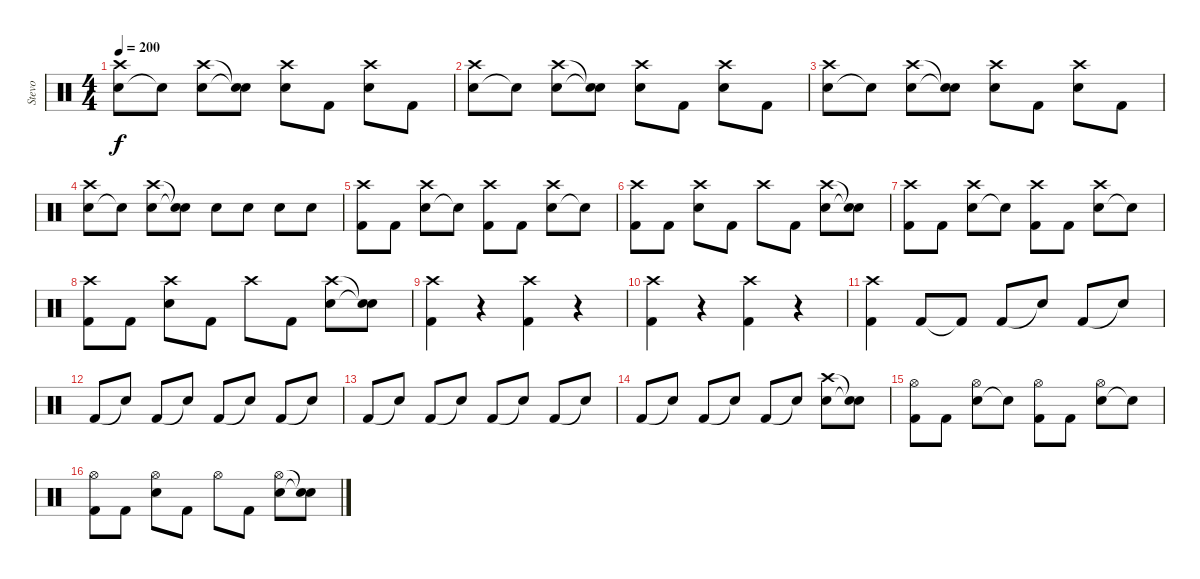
\track ("Stevo" "Stevo") {instrument percussion}
\staff {score}
\articulation defaults
\ts (4 4)
\tempo 200
\clef neutral
\ks c
("Snare (hit) 2" "Crash high (hit)").8{dy f} "Snare (hit)"{t}.8 ("Snare (hit) 2" "Crash high (hit)").8 ("Snare (hit)"{t} "Snare (hit)"{t}).8 ("Snare (hit) 2" "Crash high (hit)").8 "Kick (hit) 2".8 ("Snare (hit) 2" "Crash high (hit)").8 "Kick (hit) 2".8 |
("Snare (hit) 2" "Crash high (hit)").8 "Snare (hit)"{t}.8 ("Snare (hit) 2" "Crash high (hit)").8 ("Snare (hit)"{t} "Snare (hit)"{t}).8 ("Snare (hit) 2" "Crash high (hit)").8 "Kick (hit) 2".8 ("Snare (hit) 2" "Crash high (hit)").8 "Kick (hit) 2".8 |
("Snare (hit) 2" "Crash high (hit)").8 "Snare (hit)"{t}.8 ("Snare (hit) 2" "Crash high (hit)").8 ("Snare (hit)"{t} "Snare (hit)"{t}).8 ("Snare (hit) 2" "Crash high (hit)").8 "Kick (hit) 2".8 ("Snare (hit) 2" "Crash high (hit)").8 "Kick (hit) 2".8 |
("Snare (hit) 2" "Crash high (hit)").8 "Snare (hit)"{t}.8 ("Snare (hit) 2" "Crash high (hit)").8 ("Snare (hit)"{t} "Snare (hit)"{t}).8 "Snare (hit) 2".8 "Snare (hit) 2".8 "Snare (hit) 2".8 "Snare (hit) 2".8 |
("Kick (hit) 2" "Crash high (hit)").8 "Kick (hit) 2".8 ("Snare (hit) 2" "Crash high (hit)").8 "Snare (hit)"{t}.8 ("Kick (hit) 2" "Crash high (hit)").8 "Kick (hit) 2".8 ("Snare (hit) 2" "Crash high (hit)").8 "Snare (hit)"{t}.8 |
("Kick (hit) 2" "Crash high (hit)").8 "Kick (hit) 2".8 ("Snare (hit) 2" "Crash high (hit)").8 "Kick (hit) 2".8 "Crash high (hit)".8 "Kick (hit) 2".8 ("Snare (hit) 2" "Crash high (hit)").8 ("Snare (hit)"{t} "Snare (hit)"{t}).8 |
("Kick (hit) 2" "Crash high (hit)").8 "Kick (hit) 2".8 ("Snare (hit) 2" "Crash high (hit)").8 "Snare (hit)"{t}.8 ("Kick (hit) 2" "Crash high (hit)").8 "Kick (hit) 2".8 ("Snare (hit) 2" "Crash high (hit)").8 "Snare (hit)"{t}.8 |
("Kick (hit) 2" "Crash high (hit)").8 "Kick (hit) 2".8 ("Snare (hit) 2" "Crash high (hit)").8 "Kick (hit) 2".8 "Crash high (hit)".8 "Kick (hit) 2".8 ("Snare (hit) 2" "Crash high (hit)").8 ("Snare (hit)"{t} "Snare (hit)"{t}).8 |
("Kick (hit) 2" "Crash high (hit)").4 r.4 ("Kick (hit) 2" "Crash high (hit)").4 r.4 |
("Kick (hit) 2" "Crash high (hit)").4 r.4 ("Kick (hit) 2" "Crash high (hit)").4 r.4 |
("Kick (hit) 2" "Crash high (hit)").4 "Kick (hit) 2".8 "Kick (hit) 2"{t}.8 "Kick (hit) 2".8 "Snare (hit)"{t}.8 "Kick (hit) 2".8 "Snare (hit)"{t}.8 |
"Kick (hit) 2".8 "Snare (hit)"{t}.8 "Kick (hit) 2".8 "Snare (hit)"{t}.8 "Kick (hit) 2".8 "Snare (hit)"{t}.8 "Kick (hit) 2".8 "Snare (hit)"{t}.8 |
"Kick (hit) 2".8 "Snare (hit)"{t}.8 "Kick (hit) 2".8 "Snare (hit)"{t}.8 "Kick (hit) 2".8 "Snare (hit)"{t}.8 "Kick (hit) 2".8 "Snare (hit)"{t}.8 |
"Kick (hit) 2".8 "Snare (hit)"{t}.8 "Kick (hit) 2".8 "Snare (hit)"{t}.8 "Kick (hit) 2".8 "Snare (hit)"{t}.8 ("Snare (hit) 2" "Crash high (hit)").8 ("Snare (hit)"{t} "Snare (hit)"{t}).8 |
("Kick (hit) 2" "Hi-Hat (open)").8 "Kick (hit) 2".8 ("Snare (hit) 2" "Hi-Hat (open)").8 "Snare (hit)"{t}.8 ("Kick (hit) 2" "Hi-Hat (open)").8 "Kick (hit) 2".8 ("Snare (hit) 2" "Hi-Hat (open)").8 "Snare (hit)"{t}.8 |
("Kick (hit) 2" "Hi-Hat (open)").8 "Kick (hit) 2".8 ("Snare (hit) 2" "Hi-Hat (open)").8 "Kick (hit) 2".8 "Hi-Hat (open)".8 "Kick (hit) 2".8 ("Snare (hit) 2" "Hi-Hat (open)").8 ("Snare (hit)"{t} "Snare (hit)"{t}).8
